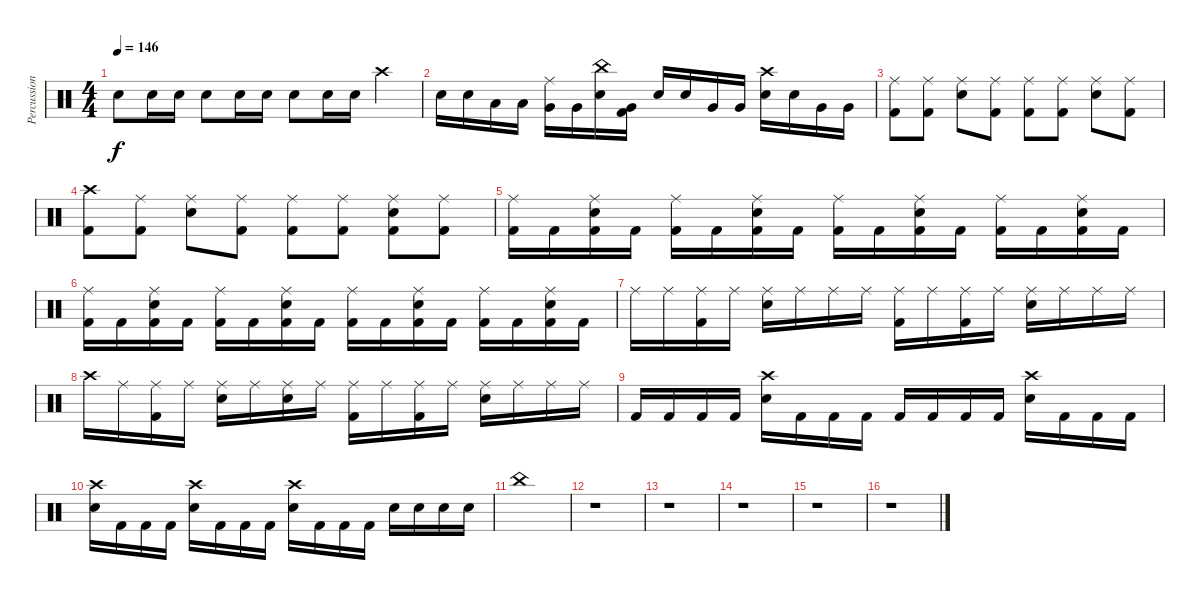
\track ("Percussion" "Percussion") {instrument percussion}
\staff {score}
\articulation defaults
\ts (4 4)
\tempo 146
\clef neutral
\ks c "Snare (hit) 2".8{dy f} "Snare (hit) 2".16 "Snare (hit) 2".16 "Snare (hit) 2".8 "Snare (hit) 2".16 "Snare (hit) 2".16 "Snare (hit) 2".8 "Snare (hit) 2".16 "Snare (hit) 2".16 "Crash high (hit)".4
|
"Snare (hit) 2".16 "Snare (hit) 2".16 "Low Tom (hit)".16 "Low Tom (hit)".16 ("Ride (middle)" "Very Low Tom (hit)").16 "Very Low Tom (hit)".16 ("China (hit)" "Snare (hit) 2").16 ("Very Low Tom (hit)" "Kick (hit) 2").16 "Snare (hit) 2".16 "Snare (hit) 2".16 "Very Low Tom (hit)".16 "Very Low Tom (hit)".16 ("Crash high (hit)" "Snare (hit) 2").16 "Snare (hit) 2".16 "Very Low Tom (hit)".16 "Very Low Tom (hit)".16 |
("Ride (middle)" "Kick (hit) 2").8 ("Ride (middle)" "Kick (hit) 2").8 ("Ride (middle)" "Snare (hit) 2").8 ("Ride (middle)" "Kick (hit) 2").8 ("Ride (middle)" "Kick (hit) 2").8 ("Ride (middle)" "Kick (hit) 2").8 ("Ride (middle)" "Snare (hit) 2").8 ("Ride (middle)" "Kick (hit) 2").8 |
("Crash high (hit)" "Kick (hit) 2").8 ("Ride (middle)" "Kick (hit) 2").8 ("Ride (middle)" "Snare (hit) 2").8 ("Ride (middle)" "Kick (hit) 2").8 ("Ride (middle)" "Kick (hit) 2").8 ("Ride (middle)" "Kick (hit) 2").8 ("Ride (middle)" "Snare (hit) 2" "Kick (hit) 2").8 ("Ride (middle)" "Kick (hit) 2").8 |
("Ride (middle)" "Kick (hit) 2").16 "Kick (hit) 2".16 ("Ride (middle)" "Snare (hit) 2" "Kick (hit) 2").16 "Kick (hit) 2".16 ("Ride (middle)" "Kick (hit) 2").16 "Kick (hit) 2".16 ("Ride (middle)" "Snare (hit) 2" "Kick (hit) 2").16 "Kick (hit) 2".16 ("Ride (middle)" "Kick (hit) 2").16 "Kick (hit) 2".16 ("Ride (middle)" "Snare (hit) 2" "Kick (hit) 2").16 "Kick (hit) 2".16 ("Ride (middle)" "Kick (hit) 2").16 "Kick (hit) 2".16 ("Ride (middle)" "Snare (hit) 2" "Kick (hit) 2").16 "Kick (hit) 2".16 |
("Ride (middle)" "Kick (hit) 2").16 "Kick (hit) 2".16 ("Ride (middle)" "Snare (hit) 2" "Kick (hit) 2").16 "Kick (hit) 2".16 ("Ride (middle)" "Kick (hit) 2").16 "Kick (hit) 2".16 ("Ride (middle)" "Snare (hit) 2" "Kick (hit) 2").16 "Kick (hit) 2".16 ("Ride (middle)" "Kick (hit) 2").16 "Kick (hit) 2".16 ("Ride (middle)" "Snare (hit) 2" "Kick (hit) 2").16 "Kick (hit) 2".16 ("Ride (middle)" "Kick (hit) 2").16 "Kick (hit) 2".16 ("Ride (middle)" "Snare (hit) 2" "Kick (hit) 2").16 "Kick (hit) 2".16 |
"Ride (middle)".16 "Ride (middle)".16 ("Ride (middle)" "Kick (hit) 2").16 "Ride (middle)".16 ("Ride (middle)" "Snare (hit) 2").16 "Ride (middle)".16 "Ride (middle)".16 "Ride (middle)".16 ("Ride (middle)" "Kick (hit) 2").16 "Ride (middle)".16 ("Ride (middle)" "Kick (hit) 2").16 "Ride (middle)".16 ("Ride (middle)" "Snare (hit) 2").16 "Ride (middle)".16 "Ride (middle)".16 "Ride (middle)".16 |
"Crash high (hit)".16 "Ride (middle)".16 ("Ride (middle)" "Kick (hit) 2").16 "Ride (middle)".16 ("Ride (middle)" "Snare (hit) 2").16 "Ride (middle)".16 ("Ride (middle)" "Snare (hit) 2").16 "Ride (middle)".16 ("Ride (middle)" "Kick (hit) 2").16 "Ride (middle)".16 ("Ride (middle)" "Kick (hit) 2").16 "Ride (middle)".16 ("Ride (middle)" "Snare (hit) 2").16 "Ride (middle)".16 "Ride (middle)".16 "Ride (middle)".16 |
"Kick (hit) 2".16 "Kick (hit) 2".16 "Kick (hit) 2".16 "Kick (hit) 2".16 ("Crash high (hit)" "Snare (hit) 2").16 "Kick (hit) 2".16 "Kick (hit) 2".16 "Kick (hit) 2".16 "Kick (hit) 2".16 "Kick (hit) 2".16 "Kick (hit) 2".16 "Kick (hit) 2".16 ("Crash high (hit)" "Snare (hit) 2").16 "Kick (hit) 2".16 "Kick (hit) 2".16 "Kick (hit) 2".16 |
("Crash high (hit)" "Snare (hit) 2").16 "Kick (hit) 2".16 "Kick (hit) 2".16 "Kick (hit) 2".16 ("Crash high (hit)" "Snare (hit) 2").16 "Kick (hit) 2".16 "Kick (hit) 2".16 "Kick (hit) 2".16 ("Crash high (hit)" "Snare (hit) 2").16 "Kick (hit) 2".16 "Kick (hit) 2".16 "Kick (hit) 2".16 "Snare (hit) 2".16 "Snare (hit) 2".16 "Snare (hit) 2".16 "Snare (hit) 2".16 |
"China (hit)".1 |
r.1 |
r.1 |
r.1 |
r.1 |
r.1
